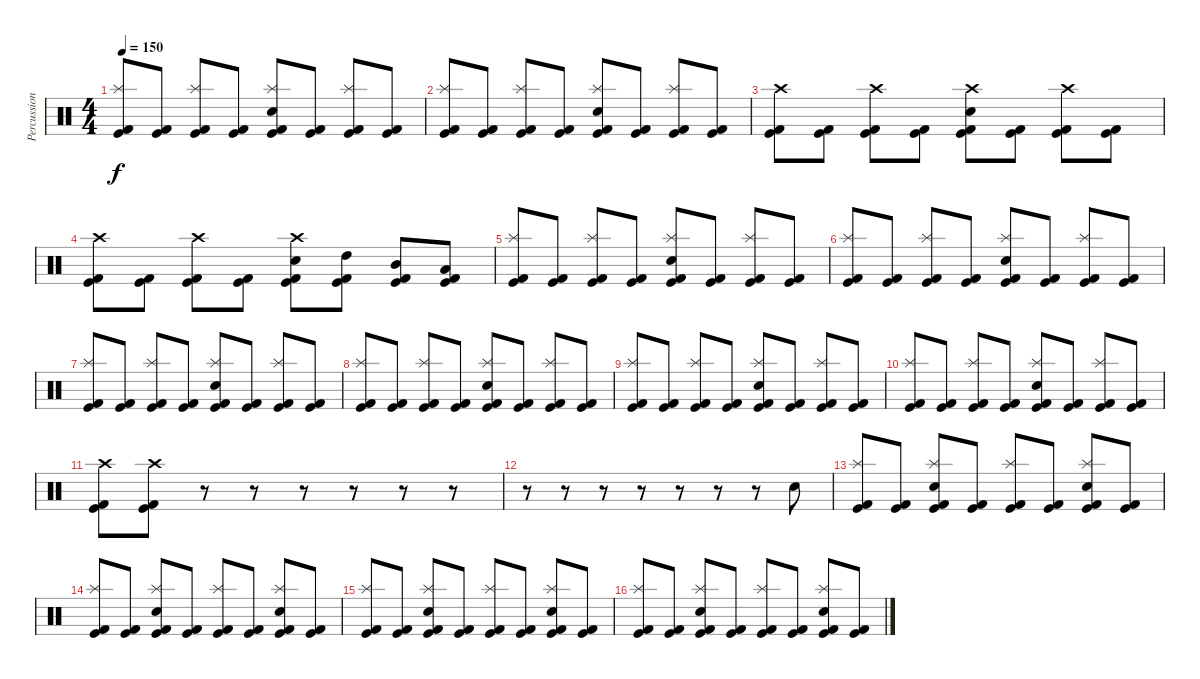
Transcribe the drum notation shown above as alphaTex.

\track ("Percussion" "Percussion") {instrument percussion}
\staff {score}
\articulation defaults
\ts (4 4)
\tempo 150
\clef neutral
\ks c
("Kick (hit) 2" "Splash (hit)" "Kick (hit)").8{dy f} ("Kick (hit) 2" "Kick (hit)").8 ("Kick (hit) 2" "Splash (hit)" "Kick (hit)").8 ("Kick (hit) 2" "Kick (hit)").8 ("Kick (hit) 2" "Splash (hit)" "Snare (hit) 2" "Kick (hit)").8 ("Kick (hit) 2" "Kick (hit)").8 ("Kick (hit) 2" "Splash (hit)" "Kick (hit)").8 ("Kick (hit) 2" "Kick (hit)").8 |
("Kick (hit) 2" "Splash (hit)" "Kick (hit)").8 ("Kick (hit) 2" "Kick (hit)").8 ("Kick (hit) 2" "Splash (hit)" "Kick (hit)").8 ("Kick (hit) 2" "Kick (hit)").8 ("Kick (hit) 2" "Splash (hit)" "Snare (hit) 2" "Kick (hit)").8 ("Kick (hit) 2" "Kick (hit)").8 ("Kick (hit) 2" "Splash (hit)" "Kick (hit)").8 ("Kick (hit) 2" "Kick (hit)").8 |
("Kick (hit) 2" "Crash high (hit)" "Kick (hit)").8 ("Kick (hit) 2" "Kick (hit)").8 ("Kick (hit) 2" "Crash high (hit)" "Kick (hit)").8 ("Kick (hit) 2" "Kick (hit)").8 ("Kick (hit) 2" "Crash high (hit)" "Snare (hit) 2" "Kick (hit)").8 ("Kick (hit) 2" "Kick (hit)").8 ("Kick (hit) 2" "Crash high (hit)" "Kick (hit)").8 ("Kick (hit) 2" "Kick (hit)").8 |
("Kick (hit) 2" "Crash high (hit)" "Kick (hit)").8 ("Kick (hit) 2" "Kick (hit)").8 ("Kick (hit) 2" "Crash high (hit)" "Kick (hit)").8 ("Kick (hit) 2" "Kick (hit)").8 ("Kick (hit) 2" "Crash high (hit)" "Snare (hit) 2" "Kick (hit)").8 ("Kick (hit) 2" "High Tom (hit)" "Kick (hit)").8 ("Kick (hit) 2" "Mid Tom (hit)" "Kick (hit)").8 ("Kick (hit) 2" "Low Tom (hit)" "Kick (hit)").8 |
("Kick (hit) 2" "Splash (hit)" "Kick (hit)").8 ("Kick (hit) 2" "Kick (hit)").8 ("Kick (hit) 2" "Splash (hit)" "Kick (hit)").8 ("Kick (hit) 2" "Kick (hit)").8 ("Kick (hit) 2" "Splash (hit)" "Snare (hit) 2" "Kick (hit)").8 ("Kick (hit) 2" "Kick (hit)").8 ("Kick (hit) 2" "Splash (hit)" "Kick (hit)").8 ("Kick (hit) 2" "Kick (hit)").8 |
("Kick (hit) 2" "Splash (hit)" "Kick (hit)").8 ("Kick (hit) 2" "Kick (hit)").8 ("Kick (hit) 2" "Splash (hit)" "Kick (hit)").8 ("Kick (hit) 2" "Kick (hit)").8 ("Kick (hit) 2" "Splash (hit)" "Snare (hit) 2" "Kick (hit)").8 ("Kick (hit) 2" "Kick (hit)").8 ("Kick (hit) 2" "Splash (hit)" "Kick (hit)").8 ("Kick (hit) 2" "Kick (hit)").8 |
("Kick (hit) 2" "Splash (hit)" "Kick (hit)").8 ("Kick (hit) 2" "Kick (hit)").8 ("Kick (hit) 2" "Splash (hit)" "Kick (hit)").8 ("Kick (hit) 2" "Kick (hit)").8 ("Kick (hit) 2" "Splash (hit)" "Snare (hit) 2" "Kick (hit)").8 ("Kick (hit) 2" "Kick (hit)").8 ("Kick (hit) 2" "Splash (hit)" "Kick (hit)").8 ("Kick (hit) 2" "Kick (hit)").8 |
("Kick (hit) 2" "Splash (hit)" "Kick (hit)").8 ("Kick (hit) 2" "Kick (hit)").8 ("Kick (hit) 2" "Splash (hit)" "Kick (hit)").8 ("Kick (hit) 2" "Kick (hit)").8 ("Kick (hit) 2" "Splash (hit)" "Snare (hit) 2" "Kick (hit)").8 ("Kick (hit) 2" "Kick (hit)").8 ("Kick (hit) 2" "Splash (hit)" "Kick (hit)").8 ("Kick (hit) 2" "Kick (hit)").8 |
("Kick (hit) 2" "Splash (hit)" "Kick (hit)").8 ("Kick (hit) 2" "Kick (hit)").8 ("Kick (hit) 2" "Splash (hit)" "Kick (hit)").8 ("Kick (hit) 2" "Kick (hit)").8 ("Kick (hit) 2" "Splash (hit)" "Snare (hit) 2" "Kick (hit)").8 ("Kick (hit) 2" "Kick (hit)").8 ("Kick (hit) 2" "Splash (hit)" "Kick (hit)").8 ("Kick (hit) 2" "Kick (hit)").8 |
("Kick (hit) 2" "Splash (hit)" "Kick (hit)").8 ("Kick (hit) 2" "Kick (hit)").8 ("Kick (hit) 2" "Splash (hit)" "Kick (hit)").8 ("Kick (hit) 2" "Kick (hit)").8 ("Kick (hit) 2" "Splash (hit)" "Snare (hit) 2" "Kick (hit)").8 ("Kick (hit) 2" "Kick (hit)").8 ("Kick (hit) 2" "Splash (hit)" "Kick (hit)").8 ("Kick (hit) 2" "Kick (hit)").8 |
("Kick (hit) 2" "Crash high (hit)" "Kick (hit)").8 ("Kick (hit) 2" "Crash high (hit)" "Kick (hit)").8 r.8 r.8 r.8 r.8 r.8 r.8 |
r.8 r.8 r.8 r.8 r.8 r.8 r.8 "Snare (hit) 2".8 |
("Kick (hit) 2" "Splash (hit)" "Kick (hit)").8 ("Kick (hit) 2" "Kick (hit)").8 ("Kick (hit) 2" "Splash (hit)" "Snare (hit) 2" "Kick (hit)").8 ("Kick (hit) 2" "Kick (hit)").8 ("Kick (hit) 2" "Splash (hit)" "Kick (hit)").8 ("Kick (hit) 2" "Kick (hit)").8 ("Kick (hit) 2" "Splash (hit)" "Snare (hit) 2" "Kick (hit)").8 ("Kick (hit) 2" "Kick (hit)").8 |
("Kick (hit) 2" "Splash (hit)" "Kick (hit)").8 ("Kick (hit) 2" "Kick (hit)").8 ("Kick (hit) 2" "Splash (hit)" "Snare (hit) 2" "Kick (hit)").8 ("Kick (hit) 2" "Kick (hit)").8 ("Kick (hit) 2" "Splash (hit)" "Kick (hit)").8 ("Kick (hit) 2" "Kick (hit)").8 ("Kick (hit) 2" "Splash (hit)" "Snare (hit) 2" "Kick (hit)").8 ("Kick (hit) 2" "Kick (hit)").8 |
("Kick (hit) 2" "Splash (hit)" "Kick (hit)").8 ("Kick (hit) 2" "Kick (hit)").8 ("Kick (hit) 2" "Splash (hit)" "Snare (hit) 2" "Kick (hit)").8 ("Kick (hit) 2" "Kick (hit)").8 ("Kick (hit) 2" "Splash (hit)" "Kick (hit)").8 ("Kick (hit) 2" "Kick (hit)").8 ("Kick (hit) 2" "Splash (hit)" "Snare (hit) 2" "Kick (hit)").8 ("Kick (hit) 2" "Kick (hit)").8 |
("Kick (hit) 2" "Splash (hit)" "Kick (hit)").8 ("Kick (hit) 2" "Kick (hit)").8 ("Kick (hit) 2" "Splash (hit)" "Snare (hit) 2" "Kick (hit)").8 ("Kick (hit) 2" "Kick (hit)").8 ("Kick (hit) 2" "Splash (hit)" "Kick (hit)").8 ("Kick (hit) 2" "Kick (hit)").8 ("Kick (hit) 2" "Splash (hit)" "Snare (hit) 2" "Kick (hit)").8 ("Kick (hit) 2" "Kick (hit)").8
